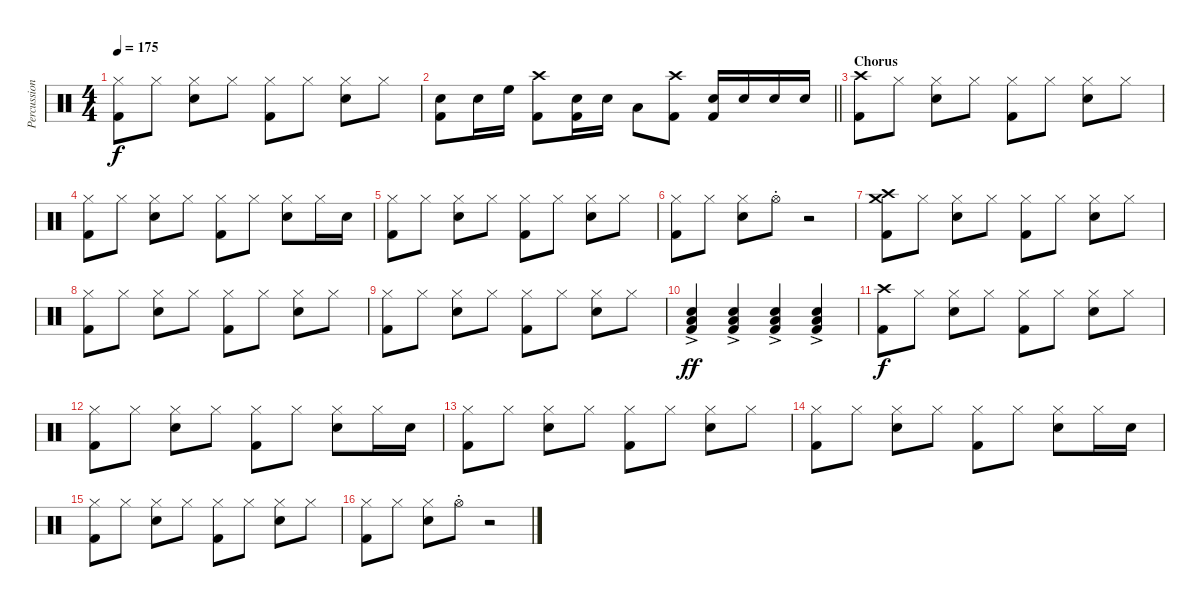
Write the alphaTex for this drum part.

\track ("Percussion" "Percussion") {instrument percussion}
\staff {score}
\articulation defaults
\ts (4 4)
\tempo 175
\clef neutral
\ks c
("Hi-Hat (closed)" "Kick (hit) 2").8{dy f} "Hi-Hat (closed)".8 ("Hi-Hat (closed)" "Snare (hit) 2").8 "Hi-Hat (closed)".8 ("Hi-Hat (closed)" "Kick (hit) 2").8 "Hi-Hat (closed)".8 ("Hi-Hat (closed)" "Snare (hit) 2").8 "Hi-Hat (closed)".8 |
\barLineRight lightlight
("Snare (hit) 2" "Kick (hit) 2").8 "Snare (hit) 2".16 "High Floor Tom (hit)".16 ("Crash high (hit)" "Kick (hit) 2").8 ("Snare (hit) 2" "Kick (hit) 2").16 "Snare (hit) 2".16 "Low Floor Tom (hit)".8 ("Crash high (hit)" "Kick (hit) 2").8 ("Snare (hit) 2" "Kick (hit) 2").16 "Snare (hit) 2".16 "Snare (hit) 2".16 "Snare (hit) 2".16 |
\section ("" "Chorus")
("Crash high (hit)" "Kick (hit) 2").8 "Hi-Hat (closed)".8 ("Hi-Hat (closed)" "Snare (hit) 2").8 "Hi-Hat (closed)".8 ("Hi-Hat (closed)" "Kick (hit) 2").8 "Hi-Hat (closed)".8 ("Hi-Hat (closed)" "Snare (hit) 2").8 "Hi-Hat (closed)".8 |
("Hi-Hat (closed)" "Kick (hit) 2").8 "Hi-Hat (closed)".8 ("Hi-Hat (closed)" "Snare (hit) 2").8 "Hi-Hat (closed)".8 ("Hi-Hat (closed)" "Kick (hit) 2").8 "Hi-Hat (closed)".8 ("Hi-Hat (closed)" "Snare (hit) 2").8 "Hi-Hat (closed)".16 "Snare (hit) 2".16 |
("Hi-Hat (closed)" "Kick (hit) 2").8 "Hi-Hat (closed)".8 ("Hi-Hat (closed)" "Snare (hit) 2").8 "Hi-Hat (closed)".8 ("Hi-Hat (closed)" "Kick (hit) 2").8 "Hi-Hat (closed)".8 ("Hi-Hat (closed)" "Snare (hit) 2").8 "Hi-Hat (closed)".8 |
("Hi-Hat (closed)" "Kick (hit) 2").8 "Hi-Hat (closed)".8 ("Hi-Hat (closed)" "Snare (hit) 2").8 "Hi-Hat (open)"{st}.8 r.2 |
("Crash high (hit)" "Crash medium (hit)" "Kick (hit) 2").8 "Hi-Hat (closed)".8 ("Hi-Hat (closed)" "Snare (hit) 2").8 "Hi-Hat (closed)".8 ("Hi-Hat (closed)" "Kick (hit) 2").8 "Hi-Hat (closed)".8 ("Hi-Hat (closed)" "Snare (hit) 2").8 "Hi-Hat (closed)".8 |
("Hi-Hat (closed)" "Kick (hit) 2").8 "Hi-Hat (closed)".8 ("Hi-Hat (closed)" "Snare (hit) 2").8 "Hi-Hat (closed)".8 ("Hi-Hat (closed)" "Kick (hit) 2").8 "Hi-Hat (closed)".8 ("Hi-Hat (closed)" "Snare (hit) 2").8 "Hi-Hat (closed)".8 |
("Hi-Hat (closed)" "Kick (hit) 2").8 "Hi-Hat (closed)".8 ("Hi-Hat (closed)" "Snare (hit) 2").8 "Hi-Hat (closed)".8 ("Hi-Hat (closed)" "Kick (hit) 2").8 "Hi-Hat (closed)".8 ("Hi-Hat (closed)" "Snare (hit) 2").8 "Hi-Hat (closed)".8 |
("Snare (hit) 2"{ac} "Low Floor Tom (hit)" "Kick (hit) 2"{ac}).4{dy ff} ("Snare (hit) 2"{ac} "Low Floor Tom (hit)" "Kick (hit) 2"{ac}).4 ("Snare (hit) 2"{ac} "Low Floor Tom (hit)" "Kick (hit) 2"{ac}).4 ("Snare (hit) 2"{ac} "Low Floor Tom (hit)" "Kick (hit) 2"{ac}).4 |
("Crash high (hit)" "Kick (hit) 2").8{dy f} "Hi-Hat (closed)".8 ("Hi-Hat (closed)" "Snare (hit) 2").8 "Hi-Hat (closed)".8 ("Hi-Hat (closed)" "Kick (hit) 2").8 "Hi-Hat (closed)".8 ("Hi-Hat (closed)" "Snare (hit) 2").8 "Hi-Hat (closed)".8 |
("Hi-Hat (closed)" "Kick (hit) 2").8 "Hi-Hat (closed)".8 ("Hi-Hat (closed)" "Snare (hit) 2").8 "Hi-Hat (closed)".8 ("Hi-Hat (closed)" "Kick (hit) 2").8 "Hi-Hat (closed)".8 ("Hi-Hat (closed)" "Snare (hit) 2").8 "Hi-Hat (closed)".16 "Snare (hit) 2".16 |
("Hi-Hat (closed)" "Kick (hit) 2").8 "Hi-Hat (closed)".8 ("Hi-Hat (closed)" "Snare (hit) 2").8 "Hi-Hat (closed)".8 ("Hi-Hat (closed)" "Kick (hit) 2").8 "Hi-Hat (closed)".8 ("Hi-Hat (closed)" "Snare (hit) 2").8 "Hi-Hat (closed)".8 |
("Hi-Hat (closed)" "Kick (hit) 2").8 "Hi-Hat (closed)".8 ("Hi-Hat (closed)" "Snare (hit) 2").8 "Hi-Hat (closed)".8 ("Hi-Hat (closed)" "Kick (hit) 2").8 "Hi-Hat (closed)".8 ("Hi-Hat (closed)" "Snare (hit) 2").8 "Hi-Hat (closed)".16 "Snare (hit) 2".16 |
("Hi-Hat (closed)" "Kick (hit) 2").8 "Hi-Hat (closed)".8 ("Hi-Hat (closed)" "Snare (hit) 2").8 "Hi-Hat (closed)".8 ("Hi-Hat (closed)" "Kick (hit) 2").8 "Hi-Hat (closed)".8 ("Hi-Hat (closed)" "Snare (hit) 2").8 "Hi-Hat (closed)".8 |
("Hi-Hat (closed)" "Kick (hit) 2").8 "Hi-Hat (closed)".8 ("Hi-Hat (closed)" "Snare (hit) 2").8 "Hi-Hat (open)"{st}.8 r.2
